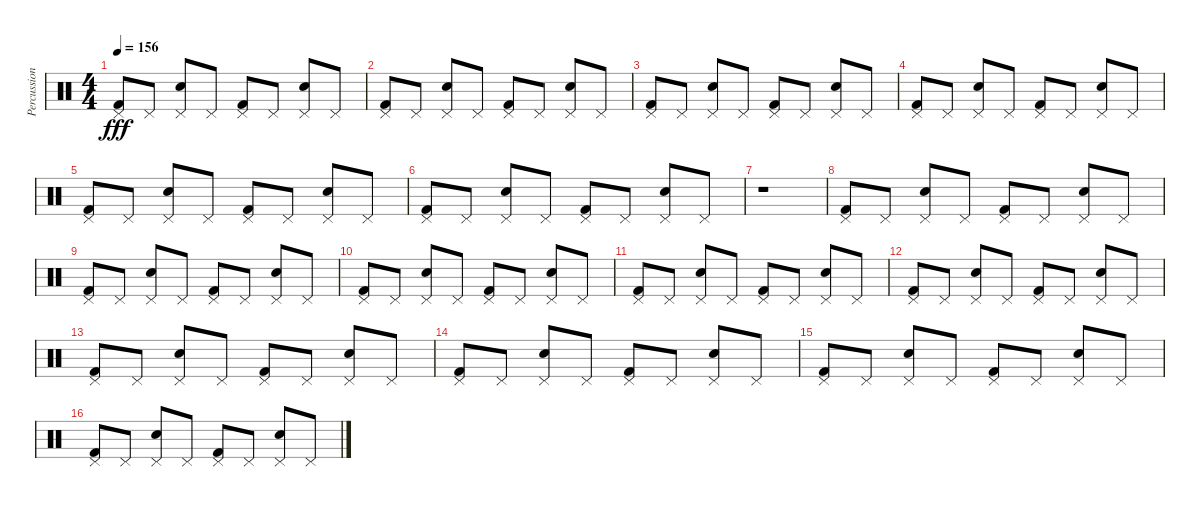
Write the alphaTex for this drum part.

\track ("Percussion" "Percussion") {instrument percussion}
\staff {score}
\articulation defaults
\ts (4 4)
\tempo 156
\clef neutral
\ks c
("Pedal Hi-Hat (hit)" "Kick (hit) 2").8{dy fff} "Pedal Hi-Hat (hit)".8 ("Pedal Hi-Hat (hit)" "Electric Snare (hit)").8 "Pedal Hi-Hat (hit)".8 ("Pedal Hi-Hat (hit)" "Kick (hit) 2").8 "Pedal Hi-Hat (hit)".8 ("Pedal Hi-Hat (hit)" "Electric Snare (hit)").8 "Pedal Hi-Hat (hit)".8 |
("Pedal Hi-Hat (hit)" "Kick (hit) 2").8 "Pedal Hi-Hat (hit)".8 ("Pedal Hi-Hat (hit)" "Electric Snare (hit)").8 "Pedal Hi-Hat (hit)".8 ("Pedal Hi-Hat (hit)" "Kick (hit) 2").8 "Pedal Hi-Hat (hit)".8 ("Pedal Hi-Hat (hit)" "Electric Snare (hit)").8 "Pedal Hi-Hat (hit)".8 |
("Pedal Hi-Hat (hit)" "Kick (hit) 2").8 "Pedal Hi-Hat (hit)".8 ("Pedal Hi-Hat (hit)" "Electric Snare (hit)").8 "Pedal Hi-Hat (hit)".8 ("Pedal Hi-Hat (hit)" "Kick (hit) 2").8 "Pedal Hi-Hat (hit)".8 ("Pedal Hi-Hat (hit)" "Electric Snare (hit)").8 "Pedal Hi-Hat (hit)".8 |
("Pedal Hi-Hat (hit)" "Kick (hit) 2").8 "Pedal Hi-Hat (hit)".8 ("Pedal Hi-Hat (hit)" "Electric Snare (hit)").8 "Pedal Hi-Hat (hit)".8 ("Pedal Hi-Hat (hit)" "Kick (hit) 2").8 "Pedal Hi-Hat (hit)".8 ("Pedal Hi-Hat (hit)" "Electric Snare (hit)").8 "Pedal Hi-Hat (hit)".8 |
("Pedal Hi-Hat (hit)" "Kick (hit) 2").8 "Pedal Hi-Hat (hit)".8 ("Pedal Hi-Hat (hit)" "Electric Snare (hit)").8 "Pedal Hi-Hat (hit)".8 ("Pedal Hi-Hat (hit)" "Kick (hit) 2").8 "Pedal Hi-Hat (hit)".8 ("Pedal Hi-Hat (hit)" "Electric Snare (hit)").8 "Pedal Hi-Hat (hit)".8 |
("Pedal Hi-Hat (hit)" "Kick (hit) 2").8 "Pedal Hi-Hat (hit)".8 ("Pedal Hi-Hat (hit)" "Electric Snare (hit)").8 "Pedal Hi-Hat (hit)".8 ("Pedal Hi-Hat (hit)" "Kick (hit) 2").8 "Pedal Hi-Hat (hit)".8 ("Pedal Hi-Hat (hit)" "Electric Snare (hit)").8 "Pedal Hi-Hat (hit)".8 |
r.1 |
("Pedal Hi-Hat (hit)" "Kick (hit) 2").8 "Pedal Hi-Hat (hit)".8 ("Pedal Hi-Hat (hit)" "Electric Snare (hit)").8 "Pedal Hi-Hat (hit)".8 ("Pedal Hi-Hat (hit)" "Kick (hit) 2").8 "Pedal Hi-Hat (hit)".8 ("Pedal Hi-Hat (hit)" "Electric Snare (hit)").8 "Pedal Hi-Hat (hit)".8 |
("Pedal Hi-Hat (hit)" "Kick (hit) 2").8 "Pedal Hi-Hat (hit)".8 ("Pedal Hi-Hat (hit)" "Electric Snare (hit)").8 "Pedal Hi-Hat (hit)".8 ("Pedal Hi-Hat (hit)" "Kick (hit) 2").8 "Pedal Hi-Hat (hit)".8 ("Pedal Hi-Hat (hit)" "Electric Snare (hit)").8 "Pedal Hi-Hat (hit)".8 |
("Pedal Hi-Hat (hit)" "Kick (hit) 2").8 "Pedal Hi-Hat (hit)".8 ("Pedal Hi-Hat (hit)" "Electric Snare (hit)").8 "Pedal Hi-Hat (hit)".8 ("Pedal Hi-Hat (hit)" "Kick (hit) 2").8 "Pedal Hi-Hat (hit)".8 ("Pedal Hi-Hat (hit)" "Electric Snare (hit)").8 "Pedal Hi-Hat (hit)".8 |
("Pedal Hi-Hat (hit)" "Kick (hit) 2").8 "Pedal Hi-Hat (hit)".8 ("Pedal Hi-Hat (hit)" "Electric Snare (hit)").8 "Pedal Hi-Hat (hit)".8 ("Pedal Hi-Hat (hit)" "Kick (hit) 2").8 "Pedal Hi-Hat (hit)".8 ("Pedal Hi-Hat (hit)" "Electric Snare (hit)").8 "Pedal Hi-Hat (hit)".8 |
("Pedal Hi-Hat (hit)" "Kick (hit) 2").8 "Pedal Hi-Hat (hit)".8 ("Pedal Hi-Hat (hit)" "Electric Snare (hit)").8 "Pedal Hi-Hat (hit)".8 ("Pedal Hi-Hat (hit)" "Kick (hit) 2").8 "Pedal Hi-Hat (hit)".8 ("Pedal Hi-Hat (hit)" "Electric Snare (hit)").8 "Pedal Hi-Hat (hit)".8 |
("Pedal Hi-Hat (hit)" "Kick (hit) 2").8 "Pedal Hi-Hat (hit)".8 ("Pedal Hi-Hat (hit)" "Electric Snare (hit)").8 "Pedal Hi-Hat (hit)".8 ("Pedal Hi-Hat (hit)" "Kick (hit) 2").8 "Pedal Hi-Hat (hit)".8 ("Pedal Hi-Hat (hit)" "Electric Snare (hit)").8 "Pedal Hi-Hat (hit)".8 |
("Pedal Hi-Hat (hit)" "Kick (hit) 2").8 "Pedal Hi-Hat (hit)".8 ("Pedal Hi-Hat (hit)" "Electric Snare (hit)").8 "Pedal Hi-Hat (hit)".8 ("Pedal Hi-Hat (hit)" "Kick (hit) 2").8 "Pedal Hi-Hat (hit)".8 ("Pedal Hi-Hat (hit)" "Electric Snare (hit)").8 "Pedal Hi-Hat (hit)".8 |
("Pedal Hi-Hat (hit)" "Kick (hit) 2").8 "Pedal Hi-Hat (hit)".8 ("Pedal Hi-Hat (hit)" "Electric Snare (hit)").8 "Pedal Hi-Hat (hit)".8 ("Pedal Hi-Hat (hit)" "Kick (hit) 2").8 "Pedal Hi-Hat (hit)".8 ("Pedal Hi-Hat (hit)" "Electric Snare (hit)").8 "Pedal Hi-Hat (hit)".8 |
("Pedal Hi-Hat (hit)" "Kick (hit) 2").8 "Pedal Hi-Hat (hit)".8 ("Pedal Hi-Hat (hit)" "Electric Snare (hit)").8 "Pedal Hi-Hat (hit)".8 ("Pedal Hi-Hat (hit)" "Kick (hit) 2").8 "Pedal Hi-Hat (hit)".8 ("Pedal Hi-Hat (hit)" "Electric Snare (hit)").8 "Pedal Hi-Hat (hit)".8
